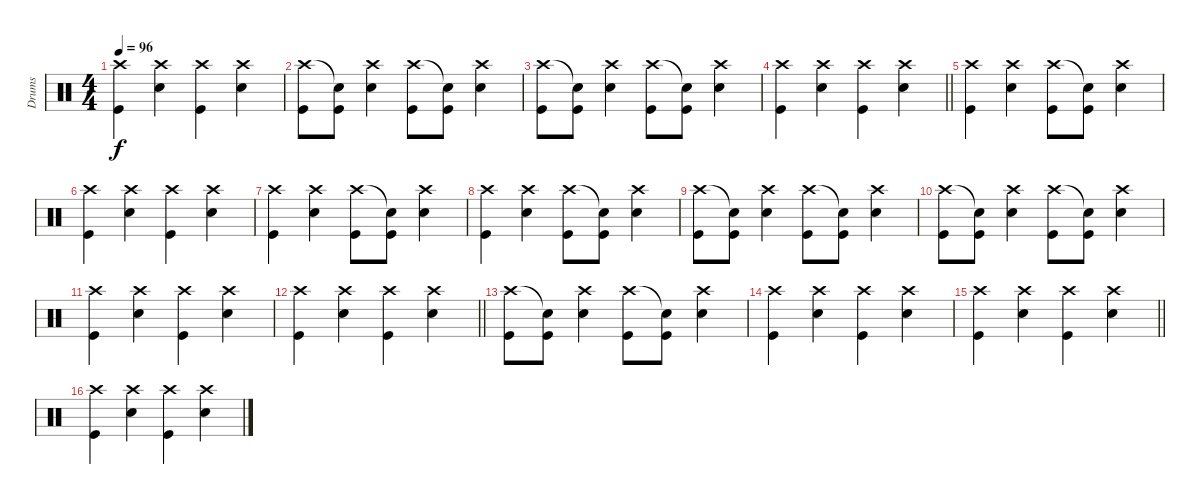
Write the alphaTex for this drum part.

\track ("Drums" "Drums") {instrument percussion}
\staff {score}
\articulation defaults
\ts (4 4)
\tempo 96
\clef neutral
\ks c
("Kick (hit)" "Crash high (hit)").4{dy f} ("Snare (hit) 2" "Crash high (hit)").4 ("Kick (hit)" "Crash high (hit)").4 ("Snare (hit) 2" "Crash high (hit)").4 |
("Kick (hit)" "Crash high (hit)").8 ("Kick (hit)" "Snare (hit)"{t}).8 ("Snare (hit) 2" "Crash high (hit)").4 ("Kick (hit)" "Crash high (hit)").8 ("Kick (hit)" "Snare (hit)"{t}).8 ("Snare (hit) 2" "Crash high (hit)").4 |
("Kick (hit)" "Crash high (hit)").8 ("Kick (hit)" "Snare (hit)"{t}).8 ("Snare (hit) 2" "Crash high (hit)").4 ("Kick (hit)" "Crash high (hit)").8 ("Kick (hit)" "Snare (hit)"{t}).8 ("Snare (hit) 2" "Crash high (hit)").4 |
\barLineRight lightlight
("Kick (hit)" "Crash high (hit)").4 ("Snare (hit) 2" "Crash high (hit)").4 ("Kick (hit)" "Crash high (hit)").4 ("Snare (hit) 2" "Crash high (hit)").4 |
("Kick (hit)" "Crash high (hit)").4 ("Snare (hit) 2" "Crash high (hit)").4 ("Kick (hit)" "Crash high (hit)").8 ("Kick (hit)" "Snare (hit)"{t}).8 ("Snare (hit) 2" "Crash high (hit)").4 |
("Kick (hit)" "Crash high (hit)").4 ("Snare (hit) 2" "Crash high (hit)").4 ("Kick (hit)" "Crash high (hit)").4 ("Snare (hit) 2" "Crash high (hit)").4 |
("Kick (hit)" "Crash high (hit)").4 ("Snare (hit) 2" "Crash high (hit)").4 ("Kick (hit)" "Crash high (hit)").8 ("Kick (hit)" "Snare (hit)"{t}).8 ("Snare (hit) 2" "Crash high (hit)").4 |
("Kick (hit)" "Crash high (hit)").4 ("Snare (hit) 2" "Crash high (hit)").4 ("Kick (hit)" "Crash high (hit)").8 ("Kick (hit)" "Snare (hit)"{t}).8 ("Snare (hit) 2" "Crash high (hit)").4 |
("Kick (hit)" "Crash high (hit)").8 ("Kick (hit)" "Snare (hit)"{t}).8 ("Snare (hit) 2" "Crash high (hit)").4 ("Kick (hit)" "Crash high (hit)").8 ("Kick (hit)" "Snare (hit)"{t}).8 ("Snare (hit) 2" "Crash high (hit)").4 |
("Kick (hit)" "Crash high (hit)").8 ("Kick (hit)" "Snare (hit)"{t}).8 ("Snare (hit) 2" "Crash high (hit)").4 ("Kick (hit)" "Crash high (hit)").8 ("Kick (hit)" "Snare (hit)"{t}).8 ("Snare (hit) 2" "Crash high (hit)").4 |
("Kick (hit)" "Crash high (hit)").4 ("Snare (hit) 2" "Crash high (hit)").4 ("Kick (hit)" "Crash high (hit)").4 ("Snare (hit) 2" "Crash high (hit)").4 |
\barLineRight lightlight
("Kick (hit)" "Crash high (hit)").4 ("Snare (hit) 2" "Crash high (hit)").4 ("Kick (hit)" "Crash high (hit)").4 ("Snare (hit) 2" "Crash high (hit)").4 |
("Kick (hit)" "Crash high (hit)").8 ("Kick (hit)" "Snare (hit)"{t}).8 ("Snare (hit) 2" "Crash high (hit)").4 ("Kick (hit)" "Crash high (hit)").8 ("Kick (hit)" "Snare (hit)"{t}).8 ("Snare (hit) 2" "Crash high (hit)").4 |
("Kick (hit)" "Crash high (hit)").4 ("Snare (hit) 2" "Crash high (hit)").4 ("Kick (hit)" "Crash high (hit)").4 ("Snare (hit) 2" "Crash high (hit)").4 |
\barLineRight lightlight
("Kick (hit)" "Crash high (hit)").4 ("Snare (hit) 2" "Crash high (hit)").4 ("Kick (hit)" "Crash high (hit)").4 ("Snare (hit) 2" "Crash high (hit)").4 |
("Kick (hit)" "Crash high (hit)").4 ("Snare (hit) 2" "Crash high (hit)").4 ("Kick (hit)" "Crash high (hit)").4 ("Snare (hit) 2" "Crash high (hit)").4
